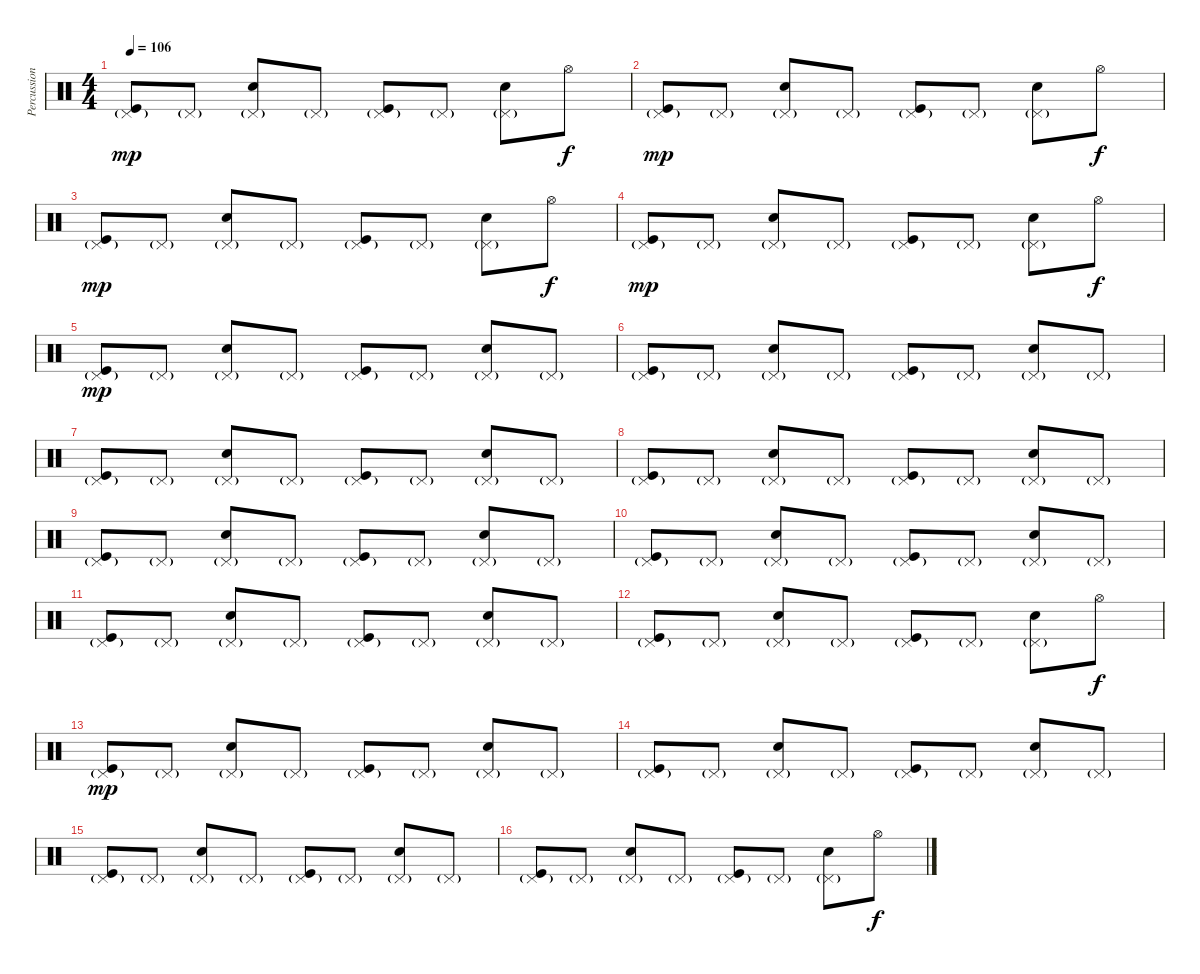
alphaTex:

\track ("Percussions" "Percussion") {instrument percussion}
\staff {score}
\articulation defaults
\ts (4 4)
\tempo 106
\clef neutral
\ks c
("Pedal Hi-Hat (hit)"{g} "Kick (hit)").8{dy mp} "Pedal Hi-Hat (hit)"{g}.8 ("Pedal Hi-Hat (hit)"{g} "Electric Snare (hit)").8 "Pedal Hi-Hat (hit)"{g}.8 ("Pedal Hi-Hat (hit)"{g} "Kick (hit)").8 "Pedal Hi-Hat (hit)"{g}.8 ("Pedal Hi-Hat (hit)"{g} "Electric Snare (hit)").8 "Hi-Hat (open)".8{dy f} |
("Pedal Hi-Hat (hit)"{g} "Kick (hit)").8{dy mp} "Pedal Hi-Hat (hit)"{g}.8 ("Pedal Hi-Hat (hit)"{g} "Electric Snare (hit)").8 "Pedal Hi-Hat (hit)"{g}.8 ("Pedal Hi-Hat (hit)"{g} "Kick (hit)").8 "Pedal Hi-Hat (hit)"{g}.8 ("Pedal Hi-Hat (hit)"{g} "Electric Snare (hit)").8 "Hi-Hat (open)".8{dy f} |
("Pedal Hi-Hat (hit)"{g} "Kick (hit)").8{dy mp} "Pedal Hi-Hat (hit)"{g}.8 ("Pedal Hi-Hat (hit)"{g} "Electric Snare (hit)").8 "Pedal Hi-Hat (hit)"{g}.8 ("Pedal Hi-Hat (hit)"{g} "Kick (hit)").8 "Pedal Hi-Hat (hit)"{g}.8 ("Pedal Hi-Hat (hit)"{g} "Electric Snare (hit)").8 "Hi-Hat (open)".8{dy f} |
("Pedal Hi-Hat (hit)"{g} "Kick (hit)").8{dy mp} "Pedal Hi-Hat (hit)"{g}.8 ("Pedal Hi-Hat (hit)"{g} "Electric Snare (hit)").8 "Pedal Hi-Hat (hit)"{g}.8 ("Pedal Hi-Hat (hit)"{g} "Kick (hit)").8 "Pedal Hi-Hat (hit)"{g}.8 ("Pedal Hi-Hat (hit)"{g} "Electric Snare (hit)").8 "Hi-Hat (open)".8{dy f} |
("Pedal Hi-Hat (hit)"{g} "Kick (hit)").8{dy mp} "Pedal Hi-Hat (hit)"{g}.8 ("Pedal Hi-Hat (hit)"{g} "Electric Snare (hit)").8 "Pedal Hi-Hat (hit)"{g}.8 ("Pedal Hi-Hat (hit)"{g} "Kick (hit)").8 "Pedal Hi-Hat (hit)"{g}.8 ("Pedal Hi-Hat (hit)"{g} "Electric Snare (hit)").8 "Pedal Hi-Hat (hit)"{g}.8 |
("Pedal Hi-Hat (hit)"{g} "Kick (hit)").8 "Pedal Hi-Hat (hit)"{g}.8 ("Pedal Hi-Hat (hit)"{g} "Electric Snare (hit)").8 "Pedal Hi-Hat (hit)"{g}.8 ("Pedal Hi-Hat (hit)"{g} "Kick (hit)").8 "Pedal Hi-Hat (hit)"{g}.8 ("Pedal Hi-Hat (hit)"{g} "Electric Snare (hit)").8 "Pedal Hi-Hat (hit)"{g}.8 |
("Pedal Hi-Hat (hit)"{g} "Kick (hit)").8 "Pedal Hi-Hat (hit)"{g}.8 ("Pedal Hi-Hat (hit)"{g} "Electric Snare (hit)").8 "Pedal Hi-Hat (hit)"{g}.8 ("Pedal Hi-Hat (hit)"{g} "Kick (hit)").8 "Pedal Hi-Hat (hit)"{g}.8 ("Pedal Hi-Hat (hit)"{g} "Electric Snare (hit)").8 "Pedal Hi-Hat (hit)"{g}.8 |
("Pedal Hi-Hat (hit)"{g} "Kick (hit)").8 "Pedal Hi-Hat (hit)"{g}.8 ("Pedal Hi-Hat (hit)"{g} "Electric Snare (hit)").8 "Pedal Hi-Hat (hit)"{g}.8 ("Pedal Hi-Hat (hit)"{g} "Kick (hit)").8 "Pedal Hi-Hat (hit)"{g}.8 ("Pedal Hi-Hat (hit)"{g} "Electric Snare (hit)").8 "Pedal Hi-Hat (hit)"{g}.8 |
("Pedal Hi-Hat (hit)"{g} "Kick (hit)").8 "Pedal Hi-Hat (hit)"{g}.8 ("Pedal Hi-Hat (hit)"{g} "Electric Snare (hit)").8 "Pedal Hi-Hat (hit)"{g}.8 ("Pedal Hi-Hat (hit)"{g} "Kick (hit)").8 "Pedal Hi-Hat (hit)"{g}.8 ("Pedal Hi-Hat (hit)"{g} "Electric Snare (hit)").8 "Pedal Hi-Hat (hit)"{g}.8 |
("Pedal Hi-Hat (hit)"{g} "Kick (hit)").8 "Pedal Hi-Hat (hit)"{g}.8 ("Pedal Hi-Hat (hit)"{g} "Electric Snare (hit)").8 "Pedal Hi-Hat (hit)"{g}.8 ("Pedal Hi-Hat (hit)"{g} "Kick (hit)").8 "Pedal Hi-Hat (hit)"{g}.8 ("Pedal Hi-Hat (hit)"{g} "Electric Snare (hit)").8 "Pedal Hi-Hat (hit)"{g}.8 |
("Pedal Hi-Hat (hit)"{g} "Kick (hit)").8 "Pedal Hi-Hat (hit)"{g}.8 ("Pedal Hi-Hat (hit)"{g} "Electric Snare (hit)").8 "Pedal Hi-Hat (hit)"{g}.8 ("Pedal Hi-Hat (hit)"{g} "Kick (hit)").8 "Pedal Hi-Hat (hit)"{g}.8 ("Pedal Hi-Hat (hit)"{g} "Electric Snare (hit)").8 "Pedal Hi-Hat (hit)"{g}.8 |
("Pedal Hi-Hat (hit)"{g} "Kick (hit)").8 "Pedal Hi-Hat (hit)"{g}.8 ("Pedal Hi-Hat (hit)"{g} "Electric Snare (hit)").8 "Pedal Hi-Hat (hit)"{g}.8 ("Pedal Hi-Hat (hit)"{g} "Kick (hit)").8 "Pedal Hi-Hat (hit)"{g}.8 ("Pedal Hi-Hat (hit)"{g} "Electric Snare (hit)").8 "Hi-Hat (open)".8{dy f} |
("Pedal Hi-Hat (hit)"{g} "Kick (hit)").8{dy mp volume 13} "Pedal Hi-Hat (hit)"{g}.8 ("Pedal Hi-Hat (hit)"{g} "Electric Snare (hit)").8 "Pedal Hi-Hat (hit)"{g}.8 ("Pedal Hi-Hat (hit)"{g} "Kick (hit)").8 "Pedal Hi-Hat (hit)"{g}.8 ("Pedal Hi-Hat (hit)"{g} "Electric Snare (hit)").8 "Pedal Hi-Hat (hit)"{g}.8 |
("Pedal Hi-Hat (hit)"{g} "Kick (hit)").8 "Pedal Hi-Hat (hit)"{g}.8 ("Pedal Hi-Hat (hit)"{g} "Electric Snare (hit)").8 "Pedal Hi-Hat (hit)"{g}.8 ("Pedal Hi-Hat (hit)"{g} "Kick (hit)").8 "Pedal Hi-Hat (hit)"{g}.8 ("Pedal Hi-Hat (hit)"{g} "Electric Snare (hit)").8 "Pedal Hi-Hat (hit)"{g}.8 |
("Pedal Hi-Hat (hit)"{g} "Kick (hit)").8 "Pedal Hi-Hat (hit)"{g}.8 ("Pedal Hi-Hat (hit)"{g} "Electric Snare (hit)").8 "Pedal Hi-Hat (hit)"{g}.8 ("Pedal Hi-Hat (hit)"{g} "Kick (hit)").8 "Pedal Hi-Hat (hit)"{g}.8 ("Pedal Hi-Hat (hit)"{g} "Electric Snare (hit)").8 "Pedal Hi-Hat (hit)"{g}.8 |
("Pedal Hi-Hat (hit)"{g} "Kick (hit)").8 "Pedal Hi-Hat (hit)"{g}.8 ("Pedal Hi-Hat (hit)"{g} "Electric Snare (hit)").8 "Pedal Hi-Hat (hit)"{g}.8 ("Pedal Hi-Hat (hit)"{g} "Kick (hit)").8 "Pedal Hi-Hat (hit)"{g}.8 ("Pedal Hi-Hat (hit)"{g} "Electric Snare (hit)").8 "Hi-Hat (open)".8{dy f}
